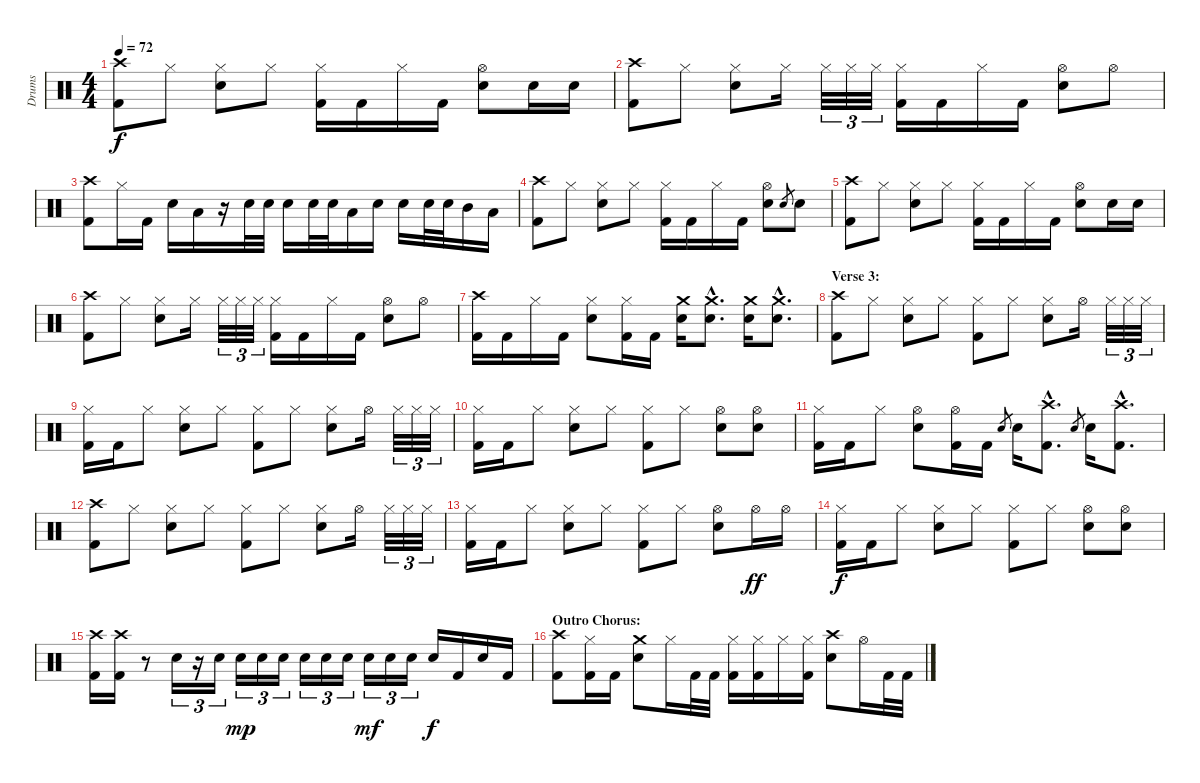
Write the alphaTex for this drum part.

\track ("Drums" "Drums") {instrument percussion}
\staff {score}
\articulation defaults
\ts (4 4)
\tempo 72
\clef neutral
\ks c
("Crash high (hit)" "Kick (hit) 2").8{dy f} "Hi-Hat (closed)".8 ("Hi-Hat (closed)" "Electric Snare (hit)").8 "Hi-Hat (closed)".8 ("Hi-Hat (closed)" "Kick (hit) 2").16 "Kick (hit) 2".16 "Hi-Hat (closed)".16 "Kick (hit) 2".16 ("Hi-Hat (open)" "Electric Snare (hit)").8 "Electric Snare (hit)".16 "Electric Snare (hit)".16 |
("Crash high (hit)" "Kick (hit) 2").8 "Hi-Hat (closed)".8 ("Hi-Hat (closed)" "Electric Snare (hit)").8 "Hi-Hat (closed)".16 "Hi-Hat (closed)".32{tu (3 2)} "Hi-Hat (closed)".32{tu (3 2)} "Hi-Hat (closed)".32{tu (3 2)} ("Hi-Hat (closed)" "Kick (hit) 2").16 "Kick (hit) 2".16 "Hi-Hat (closed)".16 "Kick (hit) 2".16 ("Hi-Hat (open)" "Electric Snare (hit)").8 "Hi-Hat (open)".8 |
("Crash high (hit)" "Kick (hit) 2").8 "Hi-Hat (closed)".16 "Kick (hit) 2".16 "Electric Snare (hit)".16 "Low Tom (hit)".16 r.16 "Electric Snare (hit)".32 "Electric Snare (hit)".32 "Electric Snare (hit)".16 "Electric Snare (hit)".32 "Electric Snare (hit)".32 "Low Tom (hit)".16 "Electric Snare (hit)".16 "Electric Snare (hit)".16 "Electric Snare (hit)".32 "Electric Snare (hit)".32 "Mid Tom (hit)".16 "Low Tom (hit)".16 |
("Crash high (hit)" "Kick (hit) 2").8 "Hi-Hat (closed)".8 ("Hi-Hat (closed)" "Electric Snare (hit)").8 "Hi-Hat (closed)".8 ("Hi-Hat (closed)" "Kick (hit) 2").16 "Kick (hit) 2".16 "Hi-Hat (closed)".16 "Kick (hit) 2".16 ("Hi-Hat (open)" "Electric Snare (hit)").8 "Electric Snare (hit)".8{gr} "Electric Snare (hit)".8 |
("Crash high (hit)" "Kick (hit) 2").8 "Hi-Hat (closed)".8 ("Hi-Hat (closed)" "Electric Snare (hit)").8 "Hi-Hat (closed)".8 ("Hi-Hat (closed)" "Kick (hit) 2").16 "Kick (hit) 2".16 "Hi-Hat (closed)".16 "Kick (hit) 2".16 ("Hi-Hat (open)" "Electric Snare (hit)").8 "Electric Snare (hit)".16 "Electric Snare (hit)".16 |
("Crash high (hit)" "Kick (hit) 2").8 "Hi-Hat (closed)".8 ("Hi-Hat (closed)" "Electric Snare (hit)").8 "Hi-Hat (closed)".16 "Hi-Hat (closed)".32{tu (3 2)} "Hi-Hat (closed)".32{tu (3 2)} "Hi-Hat (closed)".32{tu (3 2)} ("Hi-Hat (closed)" "Kick (hit) 2").16 "Kick (hit) 2".16 "Hi-Hat (closed)".16 "Kick (hit) 2".16 ("Hi-Hat (open)" "Electric Snare (hit)").8 "Hi-Hat (open)".8 |
("Crash high (hit)" "Kick (hit) 2").16 "Kick (hit) 2".16 "Hi-Hat (closed)".16 "Kick (hit) 2".16 ("Hi-Hat (closed)" "Electric Snare (hit)").8 ("Hi-Hat (closed)" "Kick (hit) 2").16 "Kick (hit) 2".16 ("Crash medium (hit)" "Electric Snare (hit)").16 ("Crash medium (hit)"{hac} "Electric Snare (hit)"{hac}).8{d} ("Crash medium (hit)" "Electric Snare (hit)").16 ("Crash medium (hit)"{hac} "Electric Snare (hit)"{hac}).8{d} |
\section ("" "Verse 3:")
("Crash high (hit)" "Kick (hit) 2").8 "Hi-Hat (closed)".8 ("Hi-Hat (closed)" "Electric Snare (hit)").8 "Hi-Hat (closed)".8 ("Hi-Hat (closed)" "Kick (hit) 2").8 "Hi-Hat (closed)".8 ("Hi-Hat (closed)" "Electric Snare (hit)").8 "Hi-Hat (open)".16 "Hi-Hat (closed)".32{tu (3 2)} "Hi-Hat (closed)".32{tu (3 2)} "Hi-Hat (closed)".32{tu (3 2)} |
("Hi-Hat (closed)" "Kick (hit) 2").16 "Kick (hit) 2".16 "Hi-Hat (closed)".8 ("Hi-Hat (closed)" "Electric Snare (hit)").8 "Hi-Hat (closed)".8 ("Hi-Hat (closed)" "Kick (hit) 2").8 "Hi-Hat (closed)".8 ("Hi-Hat (closed)" "Electric Snare (hit)").8 "Hi-Hat (open)".16 "Hi-Hat (closed)".32{tu (3 2)} "Hi-Hat (closed)".32{tu (3 2)} "Hi-Hat (closed)".32{tu (3 2)} |
("Hi-Hat (closed)" "Kick (hit) 2").16 "Kick (hit) 2".16 "Hi-Hat (closed)".8 ("Hi-Hat (closed)" "Electric Snare (hit)").8 "Hi-Hat (closed)".8 ("Hi-Hat (closed)" "Kick (hit) 2").8 "Hi-Hat (closed)".8 ("Hi-Hat (open)" "Electric Snare (hit)").8 ("Hi-Hat (open)" "Electric Snare (hit)").8 |
("Hi-Hat (closed)" "Kick (hit) 2").16 "Kick (hit) 2".16 "Hi-Hat (closed)".8 ("Hi-Hat (open)" "Electric Snare (hit)").8 ("Hi-Hat (open)" "Kick (hit) 2").16 "Kick (hit) 2".16 "Electric Snare (hit)".8{gr} "Electric Snare (hit)".16 ("Crash high (hit)"{hac} "Kick (hit) 2"{hac}).8{d} "Electric Snare (hit)".8{gr} "Electric Snare (hit)".16 ("Crash high (hit)"{hac} "Kick (hit) 2"{hac}).8{d} |
("Crash high (hit)" "Kick (hit) 2").8 "Hi-Hat (closed)".8 ("Hi-Hat (closed)" "Electric Snare (hit)").8 "Hi-Hat (closed)".8 ("Hi-Hat (closed)" "Kick (hit) 2").8 "Hi-Hat (closed)".8 ("Hi-Hat (closed)" "Electric Snare (hit)").8 "Hi-Hat (open)".16 "Hi-Hat (closed)".32{tu (3 2)} "Hi-Hat (closed)".32{tu (3 2)} "Hi-Hat (closed)".32{tu (3 2)} |
("Hi-Hat (closed)" "Kick (hit) 2").16 "Kick (hit) 2".16 "Hi-Hat (closed)".8 ("Hi-Hat (closed)" "Electric Snare (hit)").8 "Hi-Hat (closed)".8 ("Hi-Hat (closed)" "Kick (hit) 2").8 "Hi-Hat (closed)".8 ("Hi-Hat (open)" "Electric Snare (hit)").8 "Hi-Hat (open)".16{dy ff} "Hi-Hat (open)".16 |
("Hi-Hat (closed)" "Kick (hit) 2").16{dy f} "Kick (hit) 2".16 "Hi-Hat (closed)".8 ("Hi-Hat (closed)" "Electric Snare (hit)").8 "Hi-Hat (closed)".8 ("Hi-Hat (closed)" "Kick (hit) 2").8 "Hi-Hat (closed)".8 ("Hi-Hat (open)" "Electric Snare (hit)").8 ("Hi-Hat (open)" "Electric Snare (hit)").8 |
("Crash high (hit)" "Kick (hit) 2").16 ("Crash high (hit)" "Kick (hit) 2").16 r.8 "Electric Snare (hit)".16{tu (3 2)} r.16{tu (3 2)} "Electric Snare (hit)".16{tu (3 2)} "Electric Snare (hit)".16{tu (3 2) dy mp} "Electric Snare (hit)".16{tu (3 2)} "Electric Snare (hit)".16{tu (3 2)} "Electric Snare (hit)".16{tu (3 2)} "Electric Snare (hit)".16{tu (3 2)} "Electric Snare (hit)".16{tu (3 2)} "Electric Snare (hit)".16{tu (3 2) dy mf} "Electric Snare (hit)".16{tu (3 2)} "Electric Snare (hit)".16{tu (3 2)} "Electric Snare (hit)".16{dy f} "Kick (hit) 2".16 "Electric Snare (hit)".16 "Kick (hit) 2".16 |
\section ("" "Outro Chorus:")
("Crash high (hit)" "Kick (hit) 2").8 ("Hi-Hat (closed)" "Kick (hit) 2").16 "Kick (hit) 2".16 ("Crash medium (hit)" "Electric Snare (hit)").8 "Hi-Hat (closed)".16 "Kick (hit) 2".32 "Kick (hit) 2".32 ("Hi-Hat (closed)" "Kick (hit) 2").16 ("Hi-Hat (closed)" "Kick (hit) 2").16 "Hi-Hat (closed)".16 ("Hi-Hat (closed)" "Kick (hit) 2").16 ("Crash high (hit)" "Electric Snare (hit)").8 "Hi-Hat (open)".16 "Kick (hit) 2".32 "Kick (hit) 2".32
